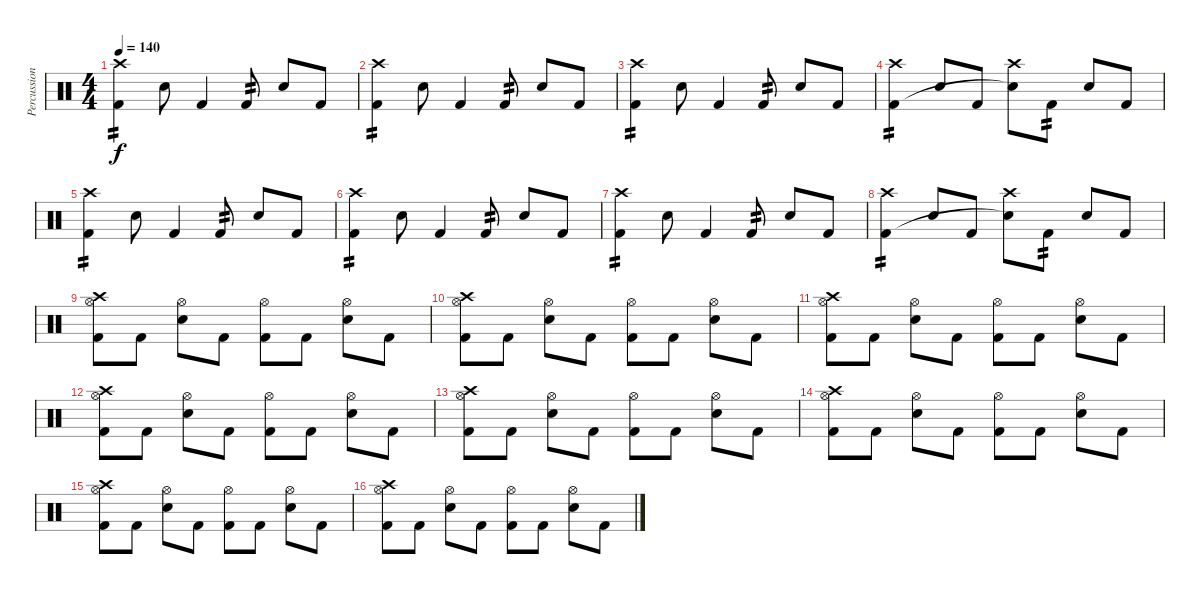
\track ("Percussion" "Percussion") {instrument percussion}
\staff {score}
\articulation defaults
\ts (4 4)
\tempo 140
\clef neutral
\ks c
("Crash high (hit)" "Kick (hit) 2").4{tp 2 dy f} "Electric Snare (hit)".8 "Kick (hit) 2".4 "Kick (hit) 2".8{tp 2} "Electric Snare (hit)".8 "Kick (hit) 2".8 |
("Crash high (hit)" "Kick (hit) 2").4{tp 2} "Electric Snare (hit)".8 "Kick (hit) 2".4 "Kick (hit) 2".8{tp 2} "Electric Snare (hit)".8 "Kick (hit) 2".8 |
("Crash high (hit)" "Kick (hit) 2").4{tp 2} "Electric Snare (hit)".8 "Kick (hit) 2".4 "Kick (hit) 2".8{tp 2} "Electric Snare (hit)".8 "Kick (hit) 2".8 |
("Crash high (hit)" "Kick (hit) 2").4{tp 2} "Electric Snare (hit)".8 "Kick (hit) 2".8 ("Crash high (hit)" "Snare (hit)"{t}).8 "Kick (hit) 2".8{tp 2} "Electric Snare (hit)".8 "Kick (hit) 2".8 |
("Crash high (hit)" "Kick (hit) 2").4{tp 2} "Electric Snare (hit)".8 "Kick (hit) 2".4 "Kick (hit) 2".8{tp 2} "Electric Snare (hit)".8 "Kick (hit) 2".8 |
("Crash high (hit)" "Kick (hit) 2").4{tp 2} "Electric Snare (hit)".8 "Kick (hit) 2".4 "Kick (hit) 2".8{tp 2} "Electric Snare (hit)".8 "Kick (hit) 2".8 |
("Crash high (hit)" "Kick (hit) 2").4{tp 2} "Electric Snare (hit)".8 "Kick (hit) 2".4 "Kick (hit) 2".8{tp 2} "Electric Snare (hit)".8 "Kick (hit) 2".8 |
("Crash high (hit)" "Kick (hit) 2").4{tp 2} "Electric Snare (hit)".8 "Kick (hit) 2".8 ("Crash high (hit)" "Snare (hit)"{t}).8 "Kick (hit) 2".8{tp 2} "Electric Snare (hit)".8 "Kick (hit) 2".8 |
("Hi-Hat (open)" "Crash high (hit)" "Kick (hit) 2").8 "Kick (hit) 2".8 ("Hi-Hat (open)" "Electric Snare (hit)").8 "Kick (hit) 2".8 ("Hi-Hat (open)" "Kick (hit) 2").8 "Kick (hit) 2".8 ("Hi-Hat (open)" "Electric Snare (hit)").8 "Kick (hit) 2".8 |
("Hi-Hat (open)" "Crash high (hit)" "Kick (hit) 2").8 "Kick (hit) 2".8 ("Hi-Hat (open)" "Electric Snare (hit)").8 "Kick (hit) 2".8 ("Hi-Hat (open)" "Kick (hit) 2").8 "Kick (hit) 2".8 ("Hi-Hat (open)" "Electric Snare (hit)").8 "Kick (hit) 2".8 |
("Hi-Hat (open)" "Crash high (hit)" "Kick (hit) 2").8 "Kick (hit) 2".8 ("Hi-Hat (open)" "Electric Snare (hit)").8 "Kick (hit) 2".8 ("Hi-Hat (open)" "Kick (hit) 2").8 "Kick (hit) 2".8 ("Hi-Hat (open)" "Electric Snare (hit)").8 "Kick (hit) 2".8 |
("Hi-Hat (open)" "Crash high (hit)" "Kick (hit) 2").8 "Kick (hit) 2".8 ("Hi-Hat (open)" "Electric Snare (hit)").8 "Kick (hit) 2".8 ("Hi-Hat (open)" "Kick (hit) 2").8 "Kick (hit) 2".8 ("Hi-Hat (open)" "Electric Snare (hit)").8 "Kick (hit) 2".8 |
("Hi-Hat (open)" "Crash high (hit)" "Kick (hit) 2").8 "Kick (hit) 2".8 ("Hi-Hat (open)" "Electric Snare (hit)").8 "Kick (hit) 2".8 ("Hi-Hat (open)" "Kick (hit) 2").8 "Kick (hit) 2".8 ("Hi-Hat (open)" "Electric Snare (hit)").8 "Kick (hit) 2".8 |
("Hi-Hat (open)" "Crash high (hit)" "Kick (hit) 2").8 "Kick (hit) 2".8 ("Hi-Hat (open)" "Electric Snare (hit)").8 "Kick (hit) 2".8 ("Hi-Hat (open)" "Kick (hit) 2").8 "Kick (hit) 2".8 ("Hi-Hat (open)" "Electric Snare (hit)").8 "Kick (hit) 2".8 |
("Hi-Hat (open)" "Crash high (hit)" "Kick (hit) 2").8 "Kick (hit) 2".8 ("Hi-Hat (open)" "Electric Snare (hit)").8 "Kick (hit) 2".8 ("Hi-Hat (open)" "Kick (hit) 2").8 "Kick (hit) 2".8 ("Hi-Hat (open)" "Electric Snare (hit)").8 "Kick (hit) 2".8 |
("Hi-Hat (open)" "Crash high (hit)" "Kick (hit) 2").8 "Kick (hit) 2".8 ("Hi-Hat (open)" "Electric Snare (hit)").8 "Kick (hit) 2".8 ("Hi-Hat (open)" "Kick (hit) 2").8 "Kick (hit) 2".8 ("Hi-Hat (open)" "Electric Snare (hit)").8 "Kick (hit) 2".8
